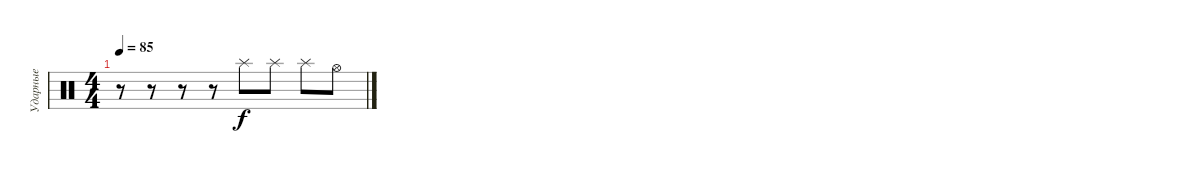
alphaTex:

\track ("Ударные" "Ударные") {instrument percussion}
\staff {score}
\articulation defaults
\ts (4 4)
\tempo 85
\clef neutral
\ks c
r.8{dy f} r.8 r.8 r.8 "Splash (hit)".8 "Splash (hit)".8 "Splash (hit)".8 "Hi-Hat (open)".8
